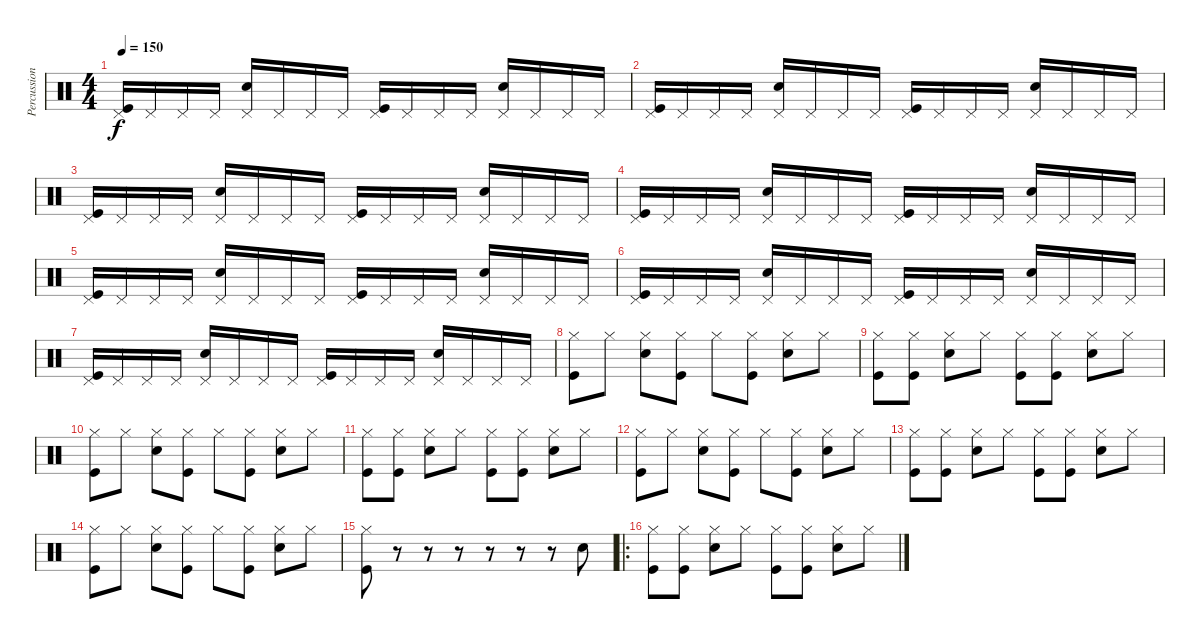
\track ("Percussion" "Percussion") {instrument percussion}
\staff {score}
\articulation defaults
\ts (4 4)
\tempo 150
\clef neutral
\ks c
("Pedal Hi-Hat (hit)" "Kick (hit)").16{dy f} "Pedal Hi-Hat (hit)".16 "Pedal Hi-Hat (hit)".16 "Pedal Hi-Hat (hit)".16 ("Pedal Hi-Hat (hit)" "Electric Snare (hit)").16 "Pedal Hi-Hat (hit)".16 "Pedal Hi-Hat (hit)".16 "Pedal Hi-Hat (hit)".16 ("Pedal Hi-Hat (hit)" "Kick (hit)").16 "Pedal Hi-Hat (hit)".16 "Pedal Hi-Hat (hit)".16 "Pedal Hi-Hat (hit)".16 ("Pedal Hi-Hat (hit)" "Electric Snare (hit)").16 "Pedal Hi-Hat (hit)".16 "Pedal Hi-Hat (hit)".16 "Pedal Hi-Hat (hit)".16 |
("Pedal Hi-Hat (hit)" "Kick (hit)").16 "Pedal Hi-Hat (hit)".16 "Pedal Hi-Hat (hit)".16 "Pedal Hi-Hat (hit)".16 ("Pedal Hi-Hat (hit)" "Electric Snare (hit)").16 "Pedal Hi-Hat (hit)".16 "Pedal Hi-Hat (hit)".16 "Pedal Hi-Hat (hit)".16 ("Pedal Hi-Hat (hit)" "Kick (hit)").16 "Pedal Hi-Hat (hit)".16 "Pedal Hi-Hat (hit)".16 "Pedal Hi-Hat (hit)".16 ("Pedal Hi-Hat (hit)" "Electric Snare (hit)").16 "Pedal Hi-Hat (hit)".16 "Pedal Hi-Hat (hit)".16 "Pedal Hi-Hat (hit)".16 |
("Pedal Hi-Hat (hit)" "Kick (hit)").16 "Pedal Hi-Hat (hit)".16 "Pedal Hi-Hat (hit)".16 "Pedal Hi-Hat (hit)".16 ("Pedal Hi-Hat (hit)" "Electric Snare (hit)").16 "Pedal Hi-Hat (hit)".16 "Pedal Hi-Hat (hit)".16 "Pedal Hi-Hat (hit)".16 ("Pedal Hi-Hat (hit)" "Kick (hit)").16 "Pedal Hi-Hat (hit)".16 "Pedal Hi-Hat (hit)".16 "Pedal Hi-Hat (hit)".16 ("Pedal Hi-Hat (hit)" "Electric Snare (hit)").16 "Pedal Hi-Hat (hit)".16 "Pedal Hi-Hat (hit)".16 "Pedal Hi-Hat (hit)".16 |
("Pedal Hi-Hat (hit)" "Kick (hit)").16 "Pedal Hi-Hat (hit)".16 "Pedal Hi-Hat (hit)".16 "Pedal Hi-Hat (hit)".16 ("Pedal Hi-Hat (hit)" "Electric Snare (hit)").16 "Pedal Hi-Hat (hit)".16 "Pedal Hi-Hat (hit)".16 "Pedal Hi-Hat (hit)".16 ("Pedal Hi-Hat (hit)" "Kick (hit)").16 "Pedal Hi-Hat (hit)".16 "Pedal Hi-Hat (hit)".16 "Pedal Hi-Hat (hit)".16 ("Pedal Hi-Hat (hit)" "Electric Snare (hit)").16 "Pedal Hi-Hat (hit)".16 "Pedal Hi-Hat (hit)".16 "Pedal Hi-Hat (hit)".16 |
("Pedal Hi-Hat (hit)" "Kick (hit)").16 "Pedal Hi-Hat (hit)".16 "Pedal Hi-Hat (hit)".16 "Pedal Hi-Hat (hit)".16 ("Pedal Hi-Hat (hit)" "Electric Snare (hit)").16 "Pedal Hi-Hat (hit)".16 "Pedal Hi-Hat (hit)".16 "Pedal Hi-Hat (hit)".16 ("Pedal Hi-Hat (hit)" "Kick (hit)").16 "Pedal Hi-Hat (hit)".16 "Pedal Hi-Hat (hit)".16 "Pedal Hi-Hat (hit)".16 ("Pedal Hi-Hat (hit)" "Electric Snare (hit)").16 "Pedal Hi-Hat (hit)".16 "Pedal Hi-Hat (hit)".16 "Pedal Hi-Hat (hit)".16 |
("Pedal Hi-Hat (hit)" "Kick (hit)").16 "Pedal Hi-Hat (hit)".16 "Pedal Hi-Hat (hit)".16 "Pedal Hi-Hat (hit)".16 ("Pedal Hi-Hat (hit)" "Electric Snare (hit)").16 "Pedal Hi-Hat (hit)".16 "Pedal Hi-Hat (hit)".16 "Pedal Hi-Hat (hit)".16 ("Pedal Hi-Hat (hit)" "Kick (hit)").16 "Pedal Hi-Hat (hit)".16 "Pedal Hi-Hat (hit)".16 "Pedal Hi-Hat (hit)".16 ("Pedal Hi-Hat (hit)" "Electric Snare (hit)").16 "Pedal Hi-Hat (hit)".16 "Pedal Hi-Hat (hit)".16 "Pedal Hi-Hat (hit)".16 |
("Pedal Hi-Hat (hit)" "Kick (hit)").16 "Pedal Hi-Hat (hit)".16 "Pedal Hi-Hat (hit)".16 "Pedal Hi-Hat (hit)".16 ("Pedal Hi-Hat (hit)" "Electric Snare (hit)").16 "Pedal Hi-Hat (hit)".16 "Pedal Hi-Hat (hit)".16 "Pedal Hi-Hat (hit)".16 ("Pedal Hi-Hat (hit)" "Kick (hit)").16 "Pedal Hi-Hat (hit)".16 "Pedal Hi-Hat (hit)".16 "Pedal Hi-Hat (hit)".16 ("Pedal Hi-Hat (hit)" "Electric Snare (hit)").16 "Pedal Hi-Hat (hit)".16 "Pedal Hi-Hat (hit)".16 "Pedal Hi-Hat (hit)".16 |
("Hi-Hat (closed)" "Kick (hit)").8 "Hi-Hat (closed)".8 ("Hi-Hat (closed)" "Electric Snare (hit)").8 ("Hi-Hat (closed)" "Kick (hit)").8 "Hi-Hat (closed)".8 ("Hi-Hat (closed)" "Kick (hit)").8 ("Hi-Hat (closed)" "Electric Snare (hit)").8 "Hi-Hat (closed)".8 |
("Hi-Hat (closed)" "Kick (hit)").8 ("Hi-Hat (closed)" "Kick (hit)").8 ("Hi-Hat (closed)" "Electric Snare (hit)").8 "Hi-Hat (closed)".8 ("Hi-Hat (closed)" "Kick (hit)").8 ("Hi-Hat (closed)" "Kick (hit)").8 ("Hi-Hat (closed)" "Electric Snare (hit)").8 "Hi-Hat (closed)".8 |
("Hi-Hat (closed)" "Kick (hit)").8 "Hi-Hat (closed)".8 ("Hi-Hat (closed)" "Electric Snare (hit)").8 ("Hi-Hat (closed)" "Kick (hit)").8 "Hi-Hat (closed)".8 ("Hi-Hat (closed)" "Kick (hit)").8 ("Hi-Hat (closed)" "Electric Snare (hit)").8 "Hi-Hat (closed)".8 |
("Hi-Hat (closed)" "Kick (hit)").8 ("Hi-Hat (closed)" "Kick (hit)").8 ("Hi-Hat (closed)" "Electric Snare (hit)").8 "Hi-Hat (closed)".8 ("Hi-Hat (closed)" "Kick (hit)").8 ("Hi-Hat (closed)" "Kick (hit)").8 ("Hi-Hat (closed)" "Electric Snare (hit)").8 "Hi-Hat (closed)".8 |
("Hi-Hat (closed)" "Kick (hit)").8 "Hi-Hat (closed)".8 ("Hi-Hat (closed)" "Electric Snare (hit)").8 ("Hi-Hat (closed)" "Kick (hit)").8 "Hi-Hat (closed)".8 ("Hi-Hat (closed)" "Kick (hit)").8 ("Hi-Hat (closed)" "Electric Snare (hit)").8 "Hi-Hat (closed)".8 |
("Hi-Hat (closed)" "Kick (hit)").8 ("Hi-Hat (closed)" "Kick (hit)").8 ("Hi-Hat (closed)" "Electric Snare (hit)").8 "Hi-Hat (closed)".8 ("Hi-Hat (closed)" "Kick (hit)").8 ("Hi-Hat (closed)" "Kick (hit)").8 ("Hi-Hat (closed)" "Electric Snare (hit)").8 "Hi-Hat (closed)".8 |
("Hi-Hat (closed)" "Kick (hit)").8 "Hi-Hat (closed)".8 ("Hi-Hat (closed)" "Electric Snare (hit)").8 ("Hi-Hat (closed)" "Kick (hit)").8 "Hi-Hat (closed)".8 ("Hi-Hat (closed)" "Kick (hit)").8 ("Hi-Hat (closed)" "Electric Snare (hit)").8 "Hi-Hat (closed)".8 |
("Hi-Hat (closed)" "Kick (hit)").8 r.8 r.8 r.8 r.8 r.8 r.8 "Electric Snare (hit)".8 |
\ro
("Hi-Hat (closed)" "Kick (hit)").8 ("Hi-Hat (closed)" "Kick (hit)").8 ("Hi-Hat (closed)" "Electric Snare (hit)").8 "Hi-Hat (closed)".8 ("Hi-Hat (closed)" "Kick (hit)").8 ("Hi-Hat (closed)" "Kick (hit)").8 ("Hi-Hat (closed)" "Electric Snare (hit)").8 "Hi-Hat (closed)".8
